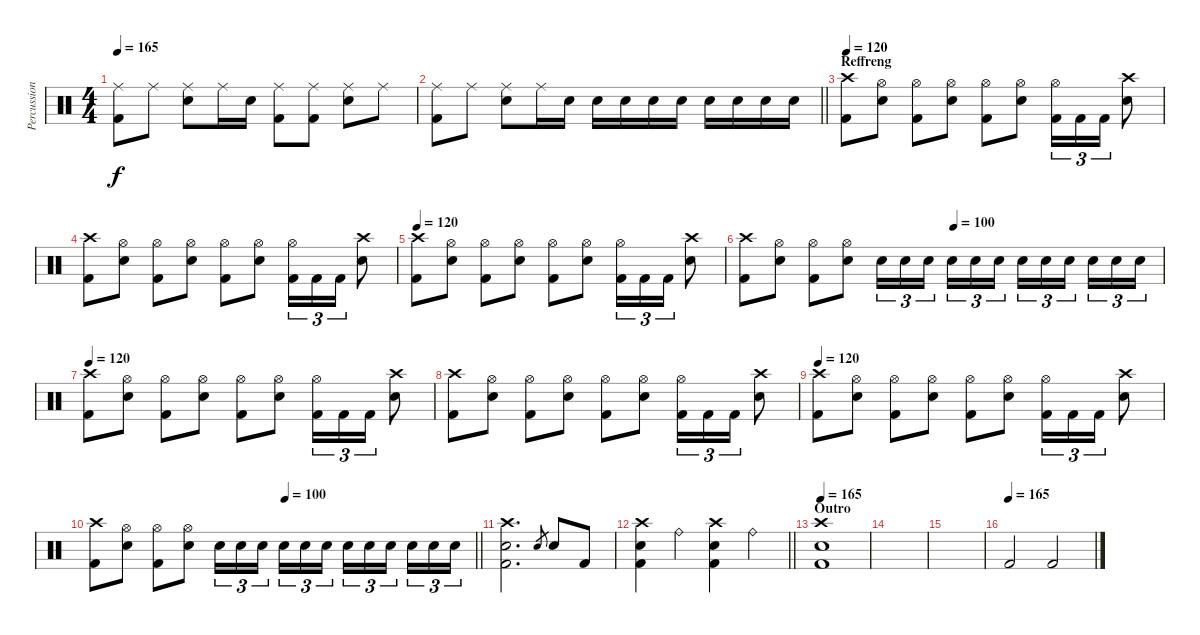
\track ("Percussions" "Percussion") {instrument percussion}
\staff {score}
\articulation defaults
\ts (4 4)
\tempo 165
\clef neutral
\ks c
("Ride (middle)" "Kick (hit) 2").8{dy f} "Ride (middle)".8 ("Ride (middle)" "Snare (hit) 2").8 "Ride (middle)".16 "Snare (hit) 2".16 ("Ride (middle)" "Kick (hit) 2").8 ("Ride (middle)" "Kick (hit) 2").8 ("Ride (middle)" "Snare (hit) 2").8 "Ride (middle)".8 |
\barLineRight lightlight
("Ride (middle)" "Kick (hit) 2").8 "Ride (middle)".8 ("Ride (middle)" "Snare (hit) 2").8 "Ride (middle)".16 "Snare (hit) 2".16 "Snare (hit) 2".16 "Snare (hit) 2".16 "Snare (hit) 2".16 "Snare (hit) 2".16 "Snare (hit) 2".16 "Snare (hit) 2".16 "Snare (hit) 2".16 "Snare (hit) 2".16 |
\section ("" "Reffreng")
\tempo 120
("Crash high (hit)" "Kick (hit) 2").8 ("Hi-Hat (open)" "Snare (hit) 2").8 ("Hi-Hat (open)" "Kick (hit) 2").8 ("Hi-Hat (open)" "Snare (hit) 2").8 ("Hi-Hat (open)" "Kick (hit) 2").8 ("Hi-Hat (open)" "Snare (hit) 2").8 ("Hi-Hat (open)" "Kick (hit) 2").16{tu (3 2)} "Kick (hit) 2".16{tu (3 2)} "Kick (hit) 2".16{tu (3 2)} ("Crash high (hit)" "Snare (hit) 2").8 |
("Crash high (hit)" "Kick (hit) 2").8 ("Hi-Hat (open)" "Snare (hit) 2").8 ("Hi-Hat (open)" "Kick (hit) 2").8 ("Hi-Hat (open)" "Snare (hit) 2").8 ("Hi-Hat (open)" "Kick (hit) 2").8 ("Hi-Hat (open)" "Snare (hit) 2").8 ("Hi-Hat (open)" "Kick (hit) 2").16{tu (3 2)} "Kick (hit) 2".16{tu (3 2)} "Kick (hit) 2".16{tu (3 2)} ("Crash high (hit)" "Snare (hit) 2").8 |
\tempo 120
("Crash high (hit)" "Kick (hit) 2").8 ("Hi-Hat (open)" "Snare (hit) 2").8 ("Hi-Hat (open)" "Kick (hit) 2").8 ("Hi-Hat (open)" "Snare (hit) 2").8 ("Hi-Hat (open)" "Kick (hit) 2").8 ("Hi-Hat (open)" "Snare (hit) 2").8 ("Hi-Hat (open)" "Kick (hit) 2").16{tu (3 2)} "Kick (hit) 2".16{tu (3 2)} "Kick (hit) 2".16{tu (3 2)} ("Crash high (hit)" "Snare (hit) 2").8 |
\tempo (100 0.5)
("Crash high (hit)" "Kick (hit) 2").8 ("Hi-Hat (open)" "Snare (hit) 2").8 ("Hi-Hat (open)" "Kick (hit) 2").8 ("Hi-Hat (open)" "Snare (hit) 2").8 "Snare (hit) 2".16{tu (3 2)} "Snare (hit) 2".16{tu (3 2)} "Snare (hit) 2".16{tu (3 2) beam splitsecondary} "Snare (hit) 2".16{tu (3 2)} "Snare (hit) 2".16{tu (3 2)} "Snare (hit) 2".16{tu (3 2)} "Snare (hit) 2".16{tu (3 2)} "Snare (hit) 2".16{tu (3 2)} "Snare (hit) 2".16{tu (3 2) beam splitsecondary} "Snare (hit) 2".16{tu (3 2)} "Snare (hit) 2".16{tu (3 2)} "Snare (hit) 2".16{tu (3 2)} |
\tempo 120
("Crash high (hit)" "Kick (hit) 2").8 ("Hi-Hat (open)" "Snare (hit) 2").8 ("Hi-Hat (open)" "Kick (hit) 2").8 ("Hi-Hat (open)" "Snare (hit) 2").8 ("Hi-Hat (open)" "Kick (hit) 2").8 ("Hi-Hat (open)" "Snare (hit) 2").8 ("Hi-Hat (open)" "Kick (hit) 2").16{tu (3 2)} "Kick (hit) 2".16{tu (3 2)} "Kick (hit) 2".16{tu (3 2)} ("Crash high (hit)" "Snare (hit) 2").8 |
("Crash high (hit)" "Kick (hit) 2").8 ("Hi-Hat (open)" "Snare (hit) 2").8 ("Hi-Hat (open)" "Kick (hit) 2").8 ("Hi-Hat (open)" "Snare (hit) 2").8 ("Hi-Hat (open)" "Kick (hit) 2").8 ("Hi-Hat (open)" "Snare (hit) 2").8 ("Hi-Hat (open)" "Kick (hit) 2").16{tu (3 2)} "Kick (hit) 2".16{tu (3 2)} "Kick (hit) 2".16{tu (3 2)} ("Crash high (hit)" "Snare (hit) 2").8 |
\tempo 120
("Crash high (hit)" "Kick (hit) 2").8 ("Hi-Hat (open)" "Snare (hit) 2").8 ("Hi-Hat (open)" "Kick (hit) 2").8 ("Hi-Hat (open)" "Snare (hit) 2").8 ("Hi-Hat (open)" "Kick (hit) 2").8 ("Hi-Hat (open)" "Snare (hit) 2").8 ("Hi-Hat (open)" "Kick (hit) 2").16{tu (3 2)} "Kick (hit) 2".16{tu (3 2)} "Kick (hit) 2".16{tu (3 2)} ("Crash high (hit)" "Snare (hit) 2").8 |
\tempo (100 0.5)
\barLineRight lightlight
("Crash high (hit)" "Kick (hit) 2").8 ("Hi-Hat (open)" "Snare (hit) 2").8 ("Hi-Hat (open)" "Kick (hit) 2").8 ("Hi-Hat (open)" "Snare (hit) 2").8 "Snare (hit) 2".16{tu (3 2)} "Snare (hit) 2".16{tu (3 2)} "Snare (hit) 2".16{tu (3 2) beam splitsecondary} "Snare (hit) 2".16{tu (3 2)} "Snare (hit) 2".16{tu (3 2)} "Snare (hit) 2".16{tu (3 2)} "Snare (hit) 2".16{tu (3 2)} "Snare (hit) 2".16{tu (3 2)} "Snare (hit) 2".16{tu (3 2) beam splitsecondary} "Snare (hit) 2".16{tu (3 2)} "Snare (hit) 2".16{tu (3 2)} "Snare (hit) 2".16{tu (3 2)} |
("Crash high (hit)" "Snare (hit) 2" "Kick (hit) 2").2{d} "Snare (hit) 2".8{gr} "Snare (hit) 2".8 "Kick (hit) 2".8 |
\barLineRight lightlight
("Crash high (hit)" "Snare (hit) 2" "Kick (hit) 2").4 "Ride (bell)".4 ("Crash high (hit)" "Snare (hit) 2" "Kick (hit) 2").4 "Ride (bell)".4 |
\section ("" "Outro")
\tempo 165
("Crash high (hit)" "Snare (hit) 2" "Kick (hit) 2").1 |
|
|
\tempo (165)
"Kick (hit) 2".2 "Kick (hit) 2".2
